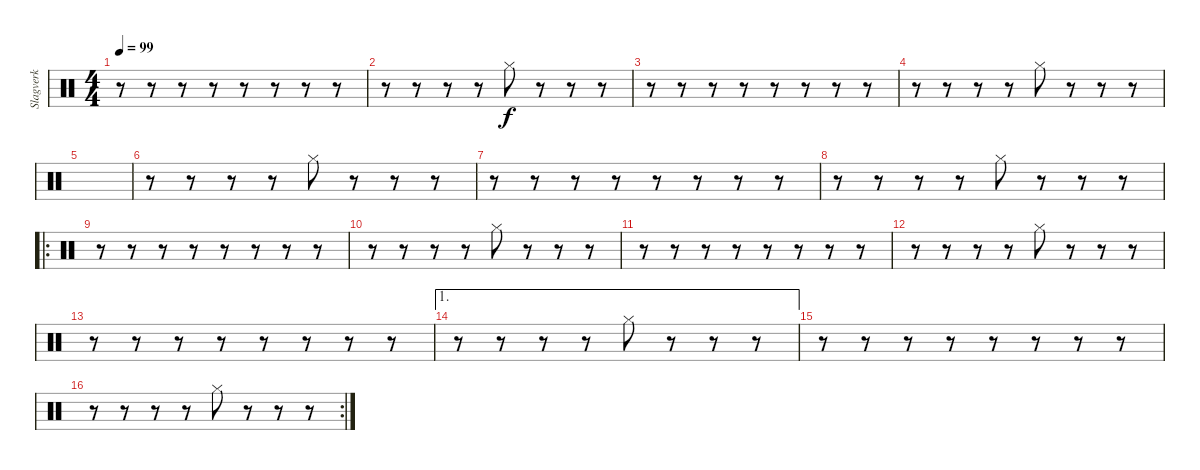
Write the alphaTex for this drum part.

\track ("Slagverk" "Slagverk") {instrument percussion}
\staff {score}
\articulation defaults
\ts (4 4)
\tempo 99
\clef neutral
\ks c
r.8{dy f} r.8 r.8 r.8 r.8 r.8 r.8 r.8 |
r.8 r.8 r.8 r.8 "Hi-Hat (closed)".8 r.8 r.8 r.8 |
r.8 r.8 r.8 r.8 r.8 r.8 r.8 r.8 |
r.8 r.8 r.8 r.8 "Hi-Hat (closed)".8 r.8 r.8 r.8 |
|
r.8 r.8 r.8 r.8 "Hi-Hat (closed)".8 r.8 r.8 r.8 |
r.8 r.8 r.8 r.8 r.8 r.8 r.8 r.8 |
r.8 r.8 r.8 r.8 "Hi-Hat (closed)".8 r.8 r.8 r.8 |
\ro
r.8 r.8 r.8 r.8 r.8 r.8 r.8 r.8 |
r.8 r.8 r.8 r.8 "Hi-Hat (closed)".8 r.8 r.8 r.8 |
r.8 r.8 r.8 r.8 r.8 r.8 r.8 r.8 |
r.8 r.8 r.8 r.8 "Hi-Hat (closed)".8 r.8 r.8 r.8 |
r.8 r.8 r.8 r.8 r.8 r.8 r.8 r.8 |
\ae 1
r.8 r.8 r.8 r.8 "Hi-Hat (closed)".8 r.8 r.8 r.8 |
r.8 r.8 r.8 r.8 r.8 r.8 r.8 r.8 |
\rc 2
r.8 r.8 r.8 r.8 "Hi-Hat (closed)".8 r.8 r.8 r.8
